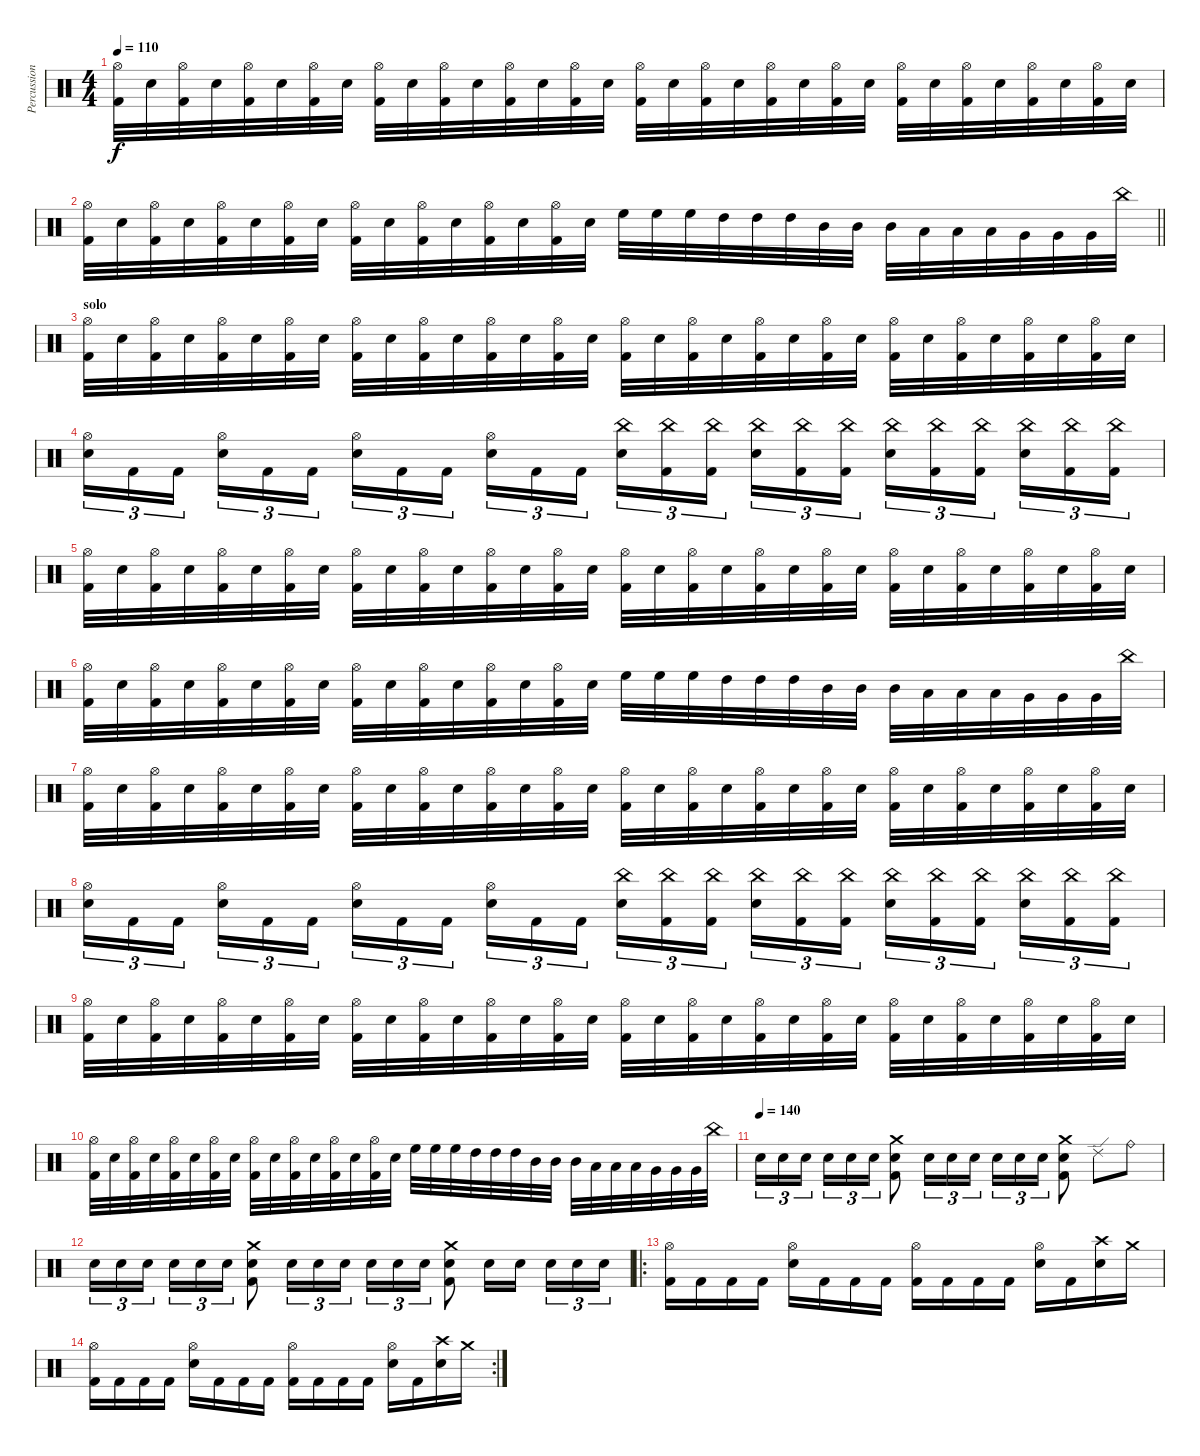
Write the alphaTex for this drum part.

\track ("Percussion" "Percussion") {instrument percussion}
\staff {score}
\articulation defaults
\ts (4 4)
\tempo 110
\clef neutral
\ks c
("Hi-Hat (open)" "Kick (hit) 2").32{dy f} "Snare (hit) 2".32 ("Hi-Hat (open)" "Kick (hit) 2").32 "Snare (hit) 2".32 ("Hi-Hat (open)" "Kick (hit) 2").32 "Snare (hit) 2".32 ("Hi-Hat (open)" "Kick (hit) 2").32 "Snare (hit) 2".32 ("Hi-Hat (open)" "Kick (hit) 2").32 "Snare (hit) 2".32 ("Hi-Hat (open)" "Kick (hit) 2").32 "Snare (hit) 2".32 ("Hi-Hat (open)" "Kick (hit) 2").32 "Snare (hit) 2".32 ("Hi-Hat (open)" "Kick (hit) 2").32 "Snare (hit) 2".32 ("Hi-Hat (open)" "Kick (hit) 2").32 "Snare (hit) 2".32 ("Hi-Hat (open)" "Kick (hit) 2").32 "Snare (hit) 2".32 ("Hi-Hat (open)" "Kick (hit) 2").32 "Snare (hit) 2".32 ("Hi-Hat (open)" "Kick (hit) 2").32 "Snare (hit) 2".32 ("Hi-Hat (open)" "Kick (hit) 2").32 "Snare (hit) 2".32 ("Hi-Hat (open)" "Kick (hit) 2").32 "Snare (hit) 2".32 ("Hi-Hat (open)" "Kick (hit) 2").32 "Snare (hit) 2".32 ("Hi-Hat (open)" "Kick (hit) 2").32 "Snare (hit) 2".32 |
\barLineRight lightlight
("Hi-Hat (open)" "Kick (hit) 2").32 "Snare (hit) 2".32 ("Hi-Hat (open)" "Kick (hit) 2").32 "Snare (hit) 2".32 ("Hi-Hat (open)" "Kick (hit) 2").32 "Snare (hit) 2".32 ("Hi-Hat (open)" "Kick (hit) 2").32 "Snare (hit) 2".32 ("Hi-Hat (open)" "Kick (hit) 2").32 "Snare (hit) 2".32 ("Hi-Hat (open)" "Kick (hit) 2").32 "Snare (hit) 2".32 ("Hi-Hat (open)" "Kick (hit) 2").32 "Snare (hit) 2".32 ("Hi-Hat (open)" "Kick (hit) 2").32 "Snare (hit) 2".32 "High Floor Tom (hit)".32 "High Floor Tom (hit)".32 "High Floor Tom (hit)".32 "High Tom (hit)".32 "High Tom (hit)".32 "High Tom (hit)".32 "Mid Tom (hit)".32 "Mid Tom (hit)".32 "Mid Tom (hit)".32 "Low Tom (hit)".32 "Low Tom (hit)".32 "Low Tom (hit)".32 "Very Low Tom (hit)".32 "Very Low Tom (hit)".32 "Very Low Tom (hit)".32 "China (hit)".32 |
\section ("" "solo")
("Hi-Hat (open)" "Kick (hit) 2").32 "Snare (hit) 2".32 ("Hi-Hat (open)" "Kick (hit) 2").32 "Snare (hit) 2".32 ("Hi-Hat (open)" "Kick (hit) 2").32 "Snare (hit) 2".32 ("Hi-Hat (open)" "Kick (hit) 2").32 "Snare (hit) 2".32 ("Hi-Hat (open)" "Kick (hit) 2").32 "Snare (hit) 2".32 ("Hi-Hat (open)" "Kick (hit) 2").32 "Snare (hit) 2".32 ("Hi-Hat (open)" "Kick (hit) 2").32 "Snare (hit) 2".32 ("Hi-Hat (open)" "Kick (hit) 2").32 "Snare (hit) 2".32 ("Hi-Hat (open)" "Kick (hit) 2").32 "Snare (hit) 2".32 ("Hi-Hat (open)" "Kick (hit) 2").32 "Snare (hit) 2".32 ("Hi-Hat (open)" "Kick (hit) 2").32 "Snare (hit) 2".32 ("Hi-Hat (open)" "Kick (hit) 2").32 "Snare (hit) 2".32 ("Hi-Hat (open)" "Kick (hit) 2").32 "Snare (hit) 2".32 ("Hi-Hat (open)" "Kick (hit) 2").32 "Snare (hit) 2".32 ("Hi-Hat (open)" "Kick (hit) 2").32 "Snare (hit) 2".32 ("Hi-Hat (open)" "Kick (hit) 2").32 "Snare (hit) 2".32 |
("Hi-Hat (open)" "Snare (hit) 2").16{tu (3 2)} "Kick (hit) 2".16{tu (3 2)} "Kick (hit) 2".16{tu (3 2) beam splitsecondary} ("Hi-Hat (open)" "Snare (hit) 2").16{tu (3 2)} "Kick (hit) 2".16{tu (3 2)} "Kick (hit) 2".16{tu (3 2)} ("Hi-Hat (open)" "Snare (hit) 2").16{tu (3 2)} "Kick (hit) 2".16{tu (3 2)} "Kick (hit) 2".16{tu (3 2) beam splitsecondary} ("Hi-Hat (open)" "Snare (hit) 2").16{tu (3 2)} "Kick (hit) 2".16{tu (3 2)} "Kick (hit) 2".16{tu (3 2)} ("China (hit)" "Snare (hit) 2").16{tu (3 2)} ("China (hit)" "Kick (hit) 2").16{tu (3 2)} ("China (hit)" "Kick (hit) 2").16{tu (3 2) beam splitsecondary} ("China (hit)" "Snare (hit) 2").16{tu (3 2)} ("China (hit)" "Kick (hit) 2").16{tu (3 2)} ("China (hit)" "Kick (hit) 2").16{tu (3 2)} ("China (hit)" "Snare (hit) 2").16{tu (3 2)} ("China (hit)" "Kick (hit) 2").16{tu (3 2)} ("China (hit)" "Kick (hit) 2").16{tu (3 2) beam splitsecondary} ("China (hit)" "Snare (hit) 2").16{tu (3 2)} ("China (hit)" "Kick (hit) 2").16{tu (3 2)} ("China (hit)" "Kick (hit) 2").16{tu (3 2)} |
("Hi-Hat (open)" "Kick (hit) 2").32 "Snare (hit) 2".32 ("Hi-Hat (open)" "Kick (hit) 2").32 "Snare (hit) 2".32 ("Hi-Hat (open)" "Kick (hit) 2").32 "Snare (hit) 2".32 ("Hi-Hat (open)" "Kick (hit) 2").32 "Snare (hit) 2".32 ("Hi-Hat (open)" "Kick (hit) 2").32 "Snare (hit) 2".32 ("Hi-Hat (open)" "Kick (hit) 2").32 "Snare (hit) 2".32 ("Hi-Hat (open)" "Kick (hit) 2").32 "Snare (hit) 2".32 ("Hi-Hat (open)" "Kick (hit) 2").32 "Snare (hit) 2".32 ("Hi-Hat (open)" "Kick (hit) 2").32 "Snare (hit) 2".32 ("Hi-Hat (open)" "Kick (hit) 2").32 "Snare (hit) 2".32 ("Hi-Hat (open)" "Kick (hit) 2").32 "Snare (hit) 2".32 ("Hi-Hat (open)" "Kick (hit) 2").32 "Snare (hit) 2".32 ("Hi-Hat (open)" "Kick (hit) 2").32 "Snare (hit) 2".32 ("Hi-Hat (open)" "Kick (hit) 2").32 "Snare (hit) 2".32 ("Hi-Hat (open)" "Kick (hit) 2").32 "Snare (hit) 2".32 ("Hi-Hat (open)" "Kick (hit) 2").32 "Snare (hit) 2".32 |
("Hi-Hat (open)" "Kick (hit) 2").32 "Snare (hit) 2".32 ("Hi-Hat (open)" "Kick (hit) 2").32 "Snare (hit) 2".32 ("Hi-Hat (open)" "Kick (hit) 2").32 "Snare (hit) 2".32 ("Hi-Hat (open)" "Kick (hit) 2").32 "Snare (hit) 2".32 ("Hi-Hat (open)" "Kick (hit) 2").32 "Snare (hit) 2".32 ("Hi-Hat (open)" "Kick (hit) 2").32 "Snare (hit) 2".32 ("Hi-Hat (open)" "Kick (hit) 2").32 "Snare (hit) 2".32 ("Hi-Hat (open)" "Kick (hit) 2").32 "Snare (hit) 2".32 "High Floor Tom (hit)".32 "High Floor Tom (hit)".32 "High Floor Tom (hit)".32 "High Tom (hit)".32 "High Tom (hit)".32 "High Tom (hit)".32 "Mid Tom (hit)".32 "Mid Tom (hit)".32 "Mid Tom (hit)".32 "Low Tom (hit)".32 "Low Tom (hit)".32 "Low Tom (hit)".32 "Very Low Tom (hit)".32 "Very Low Tom (hit)".32 "Very Low Tom (hit)".32 "China (hit)".32 |
("Hi-Hat (open)" "Kick (hit) 2").32 "Snare (hit) 2".32 ("Hi-Hat (open)" "Kick (hit) 2").32 "Snare (hit) 2".32 ("Hi-Hat (open)" "Kick (hit) 2").32 "Snare (hit) 2".32 ("Hi-Hat (open)" "Kick (hit) 2").32 "Snare (hit) 2".32 ("Hi-Hat (open)" "Kick (hit) 2").32 "Snare (hit) 2".32 ("Hi-Hat (open)" "Kick (hit) 2").32 "Snare (hit) 2".32 ("Hi-Hat (open)" "Kick (hit) 2").32 "Snare (hit) 2".32 ("Hi-Hat (open)" "Kick (hit) 2").32 "Snare (hit) 2".32 ("Hi-Hat (open)" "Kick (hit) 2").32 "Snare (hit) 2".32 ("Hi-Hat (open)" "Kick (hit) 2").32 "Snare (hit) 2".32 ("Hi-Hat (open)" "Kick (hit) 2").32 "Snare (hit) 2".32 ("Hi-Hat (open)" "Kick (hit) 2").32 "Snare (hit) 2".32 ("Hi-Hat (open)" "Kick (hit) 2").32 "Snare (hit) 2".32 ("Hi-Hat (open)" "Kick (hit) 2").32 "Snare (hit) 2".32 ("Hi-Hat (open)" "Kick (hit) 2").32 "Snare (hit) 2".32 ("Hi-Hat (open)" "Kick (hit) 2").32 "Snare (hit) 2".32 |
("Hi-Hat (open)" "Snare (hit) 2").16{tu (3 2)} "Kick (hit) 2".16{tu (3 2)} "Kick (hit) 2".16{tu (3 2) beam splitsecondary} ("Hi-Hat (open)" "Snare (hit) 2").16{tu (3 2)} "Kick (hit) 2".16{tu (3 2)} "Kick (hit) 2".16{tu (3 2)} ("Hi-Hat (open)" "Snare (hit) 2").16{tu (3 2)} "Kick (hit) 2".16{tu (3 2)} "Kick (hit) 2".16{tu (3 2) beam splitsecondary} ("Hi-Hat (open)" "Snare (hit) 2").16{tu (3 2)} "Kick (hit) 2".16{tu (3 2)} "Kick (hit) 2".16{tu (3 2)} ("China (hit)" "Snare (hit) 2").16{tu (3 2)} ("China (hit)" "Kick (hit) 2").16{tu (3 2)} ("China (hit)" "Kick (hit) 2").16{tu (3 2) beam splitsecondary} ("China (hit)" "Snare (hit) 2").16{tu (3 2)} ("China (hit)" "Kick (hit) 2").16{tu (3 2)} ("China (hit)" "Kick (hit) 2").16{tu (3 2)} ("China (hit)" "Snare (hit) 2").16{tu (3 2)} ("China (hit)" "Kick (hit) 2").16{tu (3 2)} ("China (hit)" "Kick (hit) 2").16{tu (3 2) beam splitsecondary} ("China (hit)" "Snare (hit) 2").16{tu (3 2)} ("China (hit)" "Kick (hit) 2").16{tu (3 2)} ("China (hit)" "Kick (hit) 2").16{tu (3 2)} |
("Hi-Hat (open)" "Kick (hit) 2").32 "Snare (hit) 2".32 ("Hi-Hat (open)" "Kick (hit) 2").32 "Snare (hit) 2".32 ("Hi-Hat (open)" "Kick (hit) 2").32 "Snare (hit) 2".32 ("Hi-Hat (open)" "Kick (hit) 2").32 "Snare (hit) 2".32 ("Hi-Hat (open)" "Kick (hit) 2").32 "Snare (hit) 2".32 ("Hi-Hat (open)" "Kick (hit) 2").32 "Snare (hit) 2".32 ("Hi-Hat (open)" "Kick (hit) 2").32 "Snare (hit) 2".32 ("Hi-Hat (open)" "Kick (hit) 2").32 "Snare (hit) 2".32 ("Hi-Hat (open)" "Kick (hit) 2").32 "Snare (hit) 2".32 ("Hi-Hat (open)" "Kick (hit) 2").32 "Snare (hit) 2".32 ("Hi-Hat (open)" "Kick (hit) 2").32 "Snare (hit) 2".32 ("Hi-Hat (open)" "Kick (hit) 2").32 "Snare (hit) 2".32 ("Hi-Hat (open)" "Kick (hit) 2").32 "Snare (hit) 2".32 ("Hi-Hat (open)" "Kick (hit) 2").32 "Snare (hit) 2".32 ("Hi-Hat (open)" "Kick (hit) 2").32 "Snare (hit) 2".32 ("Hi-Hat (open)" "Kick (hit) 2").32 "Snare (hit) 2".32 |
("Hi-Hat (open)" "Kick (hit) 2").32 "Snare (hit) 2".32 ("Hi-Hat (open)" "Kick (hit) 2").32 "Snare (hit) 2".32 ("Hi-Hat (open)" "Kick (hit) 2").32 "Snare (hit) 2".32 ("Hi-Hat (open)" "Kick (hit) 2").32 "Snare (hit) 2".32 ("Hi-Hat (open)" "Kick (hit) 2").32 "Snare (hit) 2".32 ("Hi-Hat (open)" "Kick (hit) 2").32 "Snare (hit) 2".32 ("Hi-Hat (open)" "Kick (hit) 2").32 "Snare (hit) 2".32 ("Hi-Hat (open)" "Kick (hit) 2").32 "Snare (hit) 2".32 "High Floor Tom (hit)".32 "High Floor Tom (hit)".32 "High Floor Tom (hit)".32 "High Tom (hit)".32 "High Tom (hit)".32 "High Tom (hit)".32 "Mid Tom (hit)".32 "Mid Tom (hit)".32 "Mid Tom (hit)".32 "Low Tom (hit)".32 "Low Tom (hit)".32 "Low Tom (hit)".32 "Very Low Tom (hit)".32 "Very Low Tom (hit)".32 "Very Low Tom (hit)".32 "China (hit)".32 |
\tempo (140)
"Snare (hit) 2".16{tu (3 2)} "Snare (hit) 2".16{tu (3 2)} "Snare (hit) 2".16{tu (3 2) beam splitsecondary} "Snare (hit) 2".16{tu (3 2)} "Snare (hit) 2".16{tu (3 2)} "Snare (hit) 2".16{tu (3 2)} ("Crash medium (hit)" "Snare (hit) 2" "Kick (hit) 2").8 "Snare (hit) 2".16{tu (3 2)} "Snare (hit) 2".16{tu (3 2)} "Snare (hit) 2".16{tu (3 2)} "Snare (hit) 2".16{tu (3 2)} "Snare (hit) 2".16{tu (3 2)} "Snare (hit) 2".16{tu (3 2)} ("Crash medium (hit)" "Snare (hit) 2" "Kick (hit) 2").8 "Ride (edge) 2".8 "Ride (bell)".8 |
"Snare (hit) 2".16{tu (3 2)} "Snare (hit) 2".16{tu (3 2)} "Snare (hit) 2".16{tu (3 2) beam splitsecondary} "Snare (hit) 2".16{tu (3 2)} "Snare (hit) 2".16{tu (3 2)} "Snare (hit) 2".16{tu (3 2)} ("Crash medium (hit)" "Snare (hit) 2" "Kick (hit) 2").8 "Snare (hit) 2".16{tu (3 2)} "Snare (hit) 2".16{tu (3 2)} "Snare (hit) 2".16{tu (3 2)} "Snare (hit) 2".16{tu (3 2)} "Snare (hit) 2".16{tu (3 2)} "Snare (hit) 2".16{tu (3 2)} ("Crash medium (hit)" "Snare (hit) 2" "Kick (hit) 2").8 "Snare (hit) 2".16 "Snare (hit) 2".16{beam splitsecondary} "Snare (hit) 2".16{tu (3 2)} "Snare (hit) 2".16{tu (3 2)} "Snare (hit) 2".16{tu (3 2)} |
\ro
("Hi-Hat (open)" "Kick (hit) 2").16 "Kick (hit) 2".16 "Kick (hit) 2".16 "Kick (hit) 2".16 ("Hi-Hat (open)" "Snare (hit) 2").16 "Kick (hit) 2".16 "Kick (hit) 2".16 "Kick (hit) 2".16 ("Hi-Hat (open)" "Kick (hit) 2").16 "Kick (hit) 2".16 "Kick (hit) 2".16 "Kick (hit) 2".16 ("Hi-Hat (open)" "Snare (hit) 2").16 "Kick (hit) 2".16 ("Crash high (hit)" "Snare (hit) 2").16 "Crash medium (hit)".16 |
\rc 2
("Hi-Hat (open)" "Kick (hit) 2").16 "Kick (hit) 2".16 "Kick (hit) 2".16 "Kick (hit) 2".16 ("Hi-Hat (open)" "Snare (hit) 2").16 "Kick (hit) 2".16 "Kick (hit) 2".16 "Kick (hit) 2".16 ("Hi-Hat (open)" "Kick (hit) 2").16 "Kick (hit) 2".16 "Kick (hit) 2".16 "Kick (hit) 2".16 ("Hi-Hat (open)" "Snare (hit) 2").16 "Kick (hit) 2".16 ("Crash high (hit)" "Snare (hit) 2").16 "Crash medium (hit)".16
